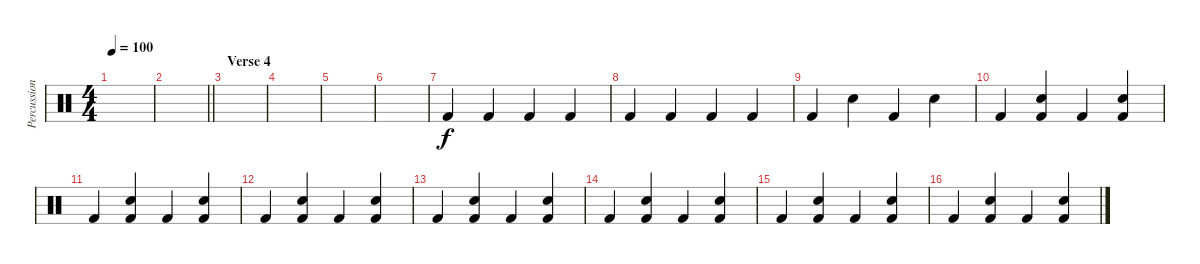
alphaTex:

\track ("Percussion" "Percussion") {instrument percussion}
\staff {score}
\articulation defaults
\ts (4 4)
\tempo 100
\clef neutral
\ks c
|
\barLineRight lightlight
|
\section ("" "Verse 4")
|
|
|
|
"Kick (hit) 2".4 "Kick (hit) 2".4 "Kick (hit) 2".4 "Kick (hit) 2".4 |
"Kick (hit) 2".4 "Kick (hit) 2".4 "Kick (hit) 2".4 "Kick (hit) 2".4 |
"Kick (hit) 2".4 "Snare (hit) 2".4 "Kick (hit) 2".4 "Snare (hit) 2".4 |
"Kick (hit) 2".4 ("Snare (hit) 2" "Kick (hit) 2").4 "Kick (hit) 2".4 ("Snare (hit) 2" "Kick (hit) 2").4 |
"Kick (hit) 2".4 ("Snare (hit) 2" "Kick (hit) 2").4 "Kick (hit) 2".4 ("Snare (hit) 2" "Kick (hit) 2").4 |
"Kick (hit) 2".4 ("Snare (hit) 2" "Kick (hit) 2").4 "Kick (hit) 2".4 ("Snare (hit) 2" "Kick (hit) 2").4 |
"Kick (hit) 2".4 ("Snare (hit) 2" "Kick (hit) 2").4 "Kick (hit) 2".4 ("Snare (hit) 2" "Kick (hit) 2").4 |
"Kick (hit) 2".4 ("Snare (hit) 2" "Kick (hit) 2").4 "Kick (hit) 2".4 ("Snare (hit) 2" "Kick (hit) 2").4 |
"Kick (hit) 2".4 ("Snare (hit) 2" "Kick (hit) 2").4 "Kick (hit) 2".4 ("Snare (hit) 2" "Kick (hit) 2").4 |
"Kick (hit) 2".4 ("Snare (hit) 2" "Kick (hit) 2").4 "Kick (hit) 2".4 ("Snare (hit) 2" "Kick (hit) 2").4
